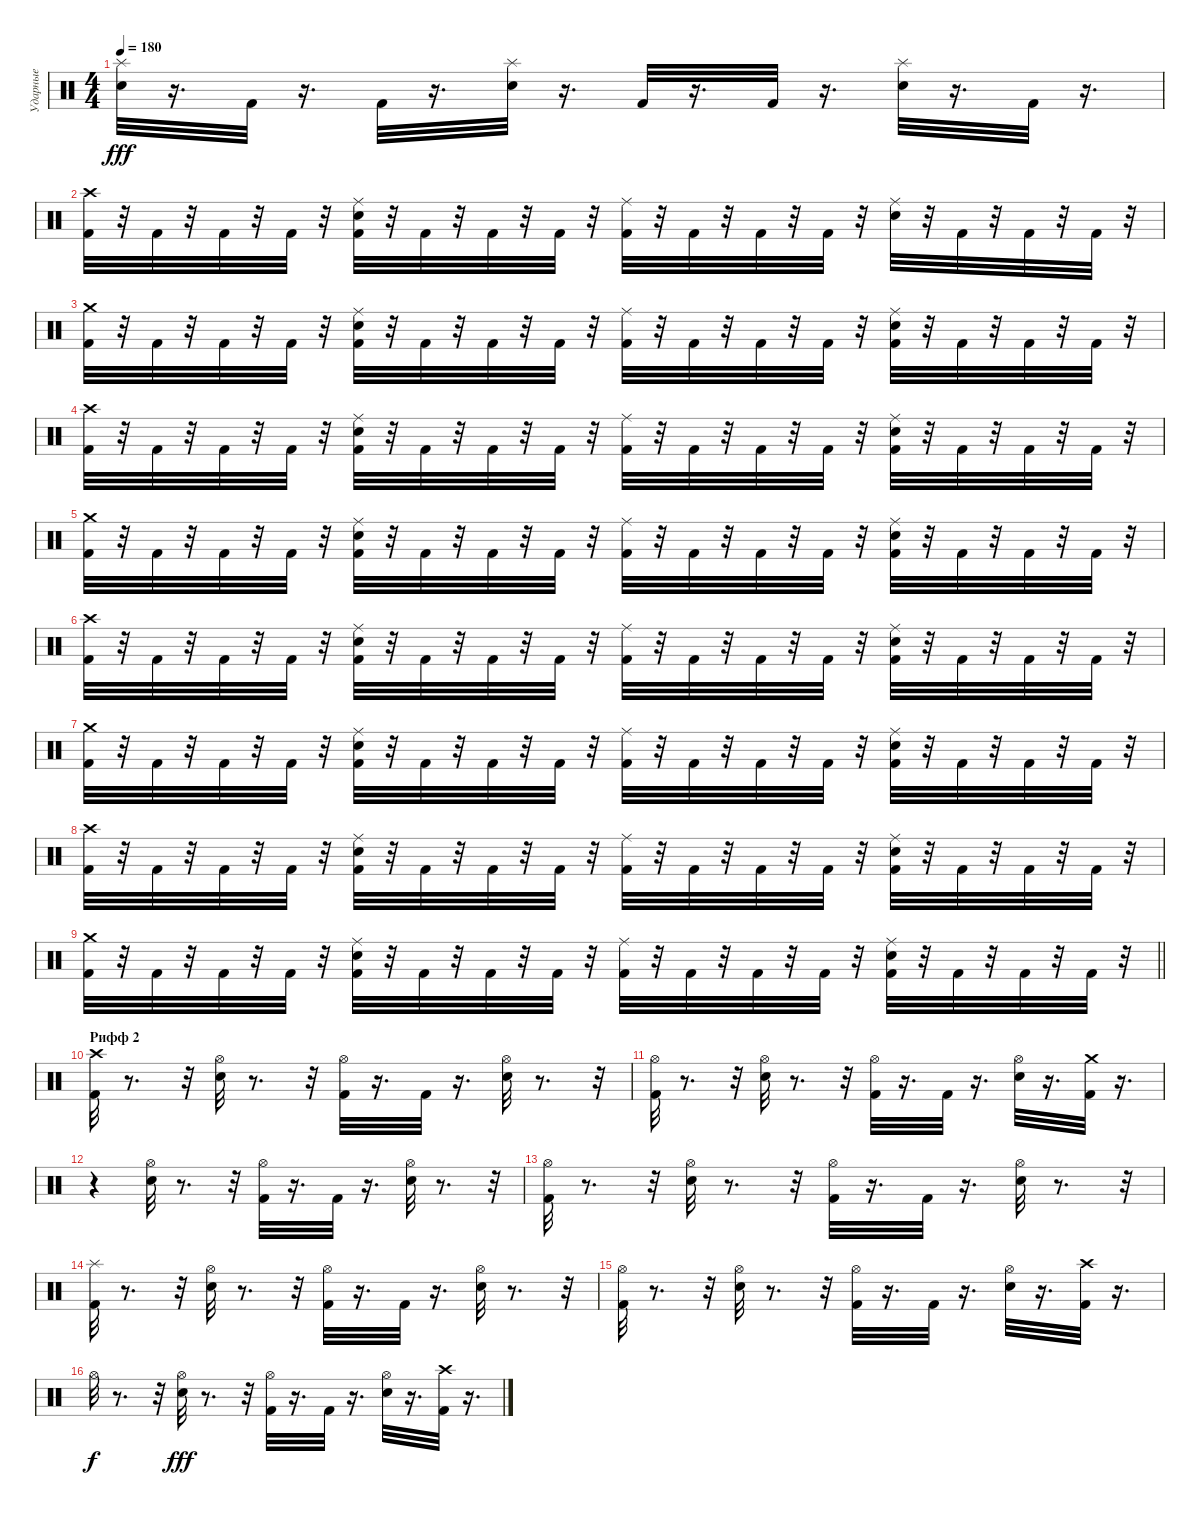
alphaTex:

\track ("Ударные" "Ударные") {instrument percussion}
\staff {score}
\articulation defaults
\ts (4 4)
\tempo 180
\clef neutral
\ks c
("Snare (hit) 2" "Splash (hit)").32{dy fff} r.16{d} "Kick (hit) 2".32 r.16{d} "Kick (hit) 2".32 r.16{d} ("Splash (hit)" "Snare (hit) 2").32 r.16{d} "Kick (hit) 2".32 r.16{d} "Kick (hit) 2".32 r.16{d} ("Splash (hit)" "Snare (hit) 2").32 r.16{d} "Kick (hit) 2".32 r.16{d} |
("Kick (hit) 2" "Crash high (hit)").32 r.32 "Kick (hit) 2".32 r.32 "Kick (hit) 2".32 r.32 "Kick (hit) 2".32 r.32 ("Kick (hit) 2" "Snare (hit) 2" "Ride (middle)").32 r.32 "Kick (hit) 2".32 r.32 "Kick (hit) 2".32 r.32 "Kick (hit) 2".32 r.32 ("Kick (hit) 2" "Ride (middle)").32 r.32 "Kick (hit) 2".32 r.32 "Kick (hit) 2".32 r.32 "Kick (hit) 2".32 r.32 ("Ride (middle)" "Snare (hit) 2").32 r.32 "Kick (hit) 2".32 r.32 "Kick (hit) 2".32 r.32 "Kick (hit) 2".32 r.32 |
("Kick (hit) 2" "Crash medium (hit)").32 r.32 "Kick (hit) 2".32 r.32 "Kick (hit) 2".32 r.32 "Kick (hit) 2".32 r.32 ("Kick (hit) 2" "Snare (hit) 2" "Ride (middle)").32 r.32 "Kick (hit) 2".32 r.32 "Kick (hit) 2".32 r.32 "Kick (hit) 2".32 r.32 ("Ride (middle)" "Kick (hit) 2").32 r.32 "Kick (hit) 2".32 r.32 "Kick (hit) 2".32 r.32 "Kick (hit) 2".32 r.32 ("Ride (middle)" "Kick (hit) 2" "Snare (hit) 2").32 r.32 "Kick (hit) 2".32 r.32 "Kick (hit) 2".32 r.32 "Kick (hit) 2".32 r.32 |
("Kick (hit) 2" "Crash high (hit)").32 r.32 "Kick (hit) 2".32 r.32 "Kick (hit) 2".32 r.32 "Kick (hit) 2".32 r.32 ("Kick (hit) 2" "Ride (middle)" "Snare (hit) 2").32 r.32 "Kick (hit) 2".32 r.32 "Kick (hit) 2".32 r.32 "Kick (hit) 2".32 r.32 ("Kick (hit) 2" "Ride (middle)").32 r.32 "Kick (hit) 2".32 r.32 "Kick (hit) 2".32 r.32 "Kick (hit) 2".32 r.32 ("Ride (middle)" "Snare (hit) 2" "Kick (hit) 2").32 r.32 "Kick (hit) 2".32 r.32 "Kick (hit) 2".32 r.32 "Kick (hit) 2".32 r.32 |
("Crash medium (hit)" "Kick (hit) 2").32 r.32 "Kick (hit) 2".32 r.32 "Kick (hit) 2".32 r.32 "Kick (hit) 2".32 r.32 ("Kick (hit) 2" "Snare (hit) 2" "Ride (middle)").32 r.32 "Kick (hit) 2".32 r.32 "Kick (hit) 2".32 r.32 "Kick (hit) 2".32 r.32 ("Ride (middle)" "Kick (hit) 2").32 r.32 "Kick (hit) 2".32 r.32 "Kick (hit) 2".32 r.32 "Kick (hit) 2".32 r.32 ("Snare (hit) 2" "Kick (hit) 2" "Ride (middle)").32 r.32 "Kick (hit) 2".32 r.32 "Kick (hit) 2".32 r.32 "Kick (hit) 2".32 r.32 |
("Kick (hit) 2" "Crash high (hit)").32 r.32 "Kick (hit) 2".32 r.32 "Kick (hit) 2".32 r.32 "Kick (hit) 2".32 r.32 ("Kick (hit) 2" "Snare (hit) 2" "Ride (middle)").32 r.32 "Kick (hit) 2".32 r.32 "Kick (hit) 2".32 r.32 "Kick (hit) 2".32 r.32 ("Ride (middle)" "Kick (hit) 2").32 r.32 "Kick (hit) 2".32 r.32 "Kick (hit) 2".32 r.32 "Kick (hit) 2".32 r.32 ("Snare (hit) 2" "Ride (middle)" "Kick (hit) 2").32 r.32 "Kick (hit) 2".32 r.32 "Kick (hit) 2".32 r.32 "Kick (hit) 2".32 r.32 |
("Crash medium (hit)" "Kick (hit) 2").32 r.32 "Kick (hit) 2".32 r.32 "Kick (hit) 2".32 r.32 "Kick (hit) 2".32 r.32 ("Ride (middle)" "Kick (hit) 2" "Snare (hit) 2").32 r.32 "Kick (hit) 2".32 r.32 "Kick (hit) 2".32 r.32 "Kick (hit) 2".32 r.32 ("Kick (hit) 2" "Ride (middle)").32 r.32 "Kick (hit) 2".32 r.32 "Kick (hit) 2".32 r.32 "Kick (hit) 2".32 r.32 ("Ride (middle)" "Snare (hit) 2" "Kick (hit) 2").32 r.32 "Kick (hit) 2".32 r.32 "Kick (hit) 2".32 r.32 "Kick (hit) 2".32 r.32 |
("Crash high (hit)" "Kick (hit) 2").32 r.32 "Kick (hit) 2".32 r.32 "Kick (hit) 2".32 r.32 "Kick (hit) 2".32 r.32 ("Ride (middle)" "Kick (hit) 2" "Snare (hit) 2").32 r.32 "Kick (hit) 2".32 r.32 "Kick (hit) 2".32 r.32 "Kick (hit) 2".32 r.32 ("Kick (hit) 2" "Ride (middle)").32 r.32 "Kick (hit) 2".32 r.32 "Kick (hit) 2".32 r.32 "Kick (hit) 2".32 r.32 ("Snare (hit) 2" "Ride (middle)" "Kick (hit) 2").32 r.32 "Kick (hit) 2".32 r.32 "Kick (hit) 2".32 r.32 "Kick (hit) 2".32 r.32 |
\barLineRight lightlight
("Kick (hit) 2" "Crash medium (hit)").32 r.32 "Kick (hit) 2".32 r.32 "Kick (hit) 2".32 r.32 "Kick (hit) 2".32 r.32 ("Kick (hit) 2" "Ride (middle)" "Snare (hit) 2").32 r.32 "Kick (hit) 2".32 r.32 "Kick (hit) 2".32 r.32 "Kick (hit) 2".32 r.32 ("Kick (hit) 2" "Ride (middle)").32 r.32 "Kick (hit) 2".32 r.32 "Kick (hit) 2".32 r.32 "Kick (hit) 2".32 r.32 ("Kick (hit) 2" "Ride (middle)" "Snare (hit) 2").32 r.32 "Kick (hit) 2".32 r.32 "Kick (hit) 2".32 r.32 "Kick (hit) 2".32 r.32 |
\section ("" "Рифф 2")
("Kick (hit) 2" "Crash high (hit)").32 r.8{d} r.32 ("Hi-Hat (open)" "Snare (hit) 2").32 r.8{d} r.32 ("Kick (hit) 2" "Hi-Hat (open)").32 r.16{d} "Kick (hit) 2".32 r.16{d} ("Snare (hit) 2" "Hi-Hat (open)").32 r.8{d} r.32 |
("Hi-Hat (open)" "Kick (hit) 2").32 r.8{d} r.32 ("Snare (hit) 2" "Hi-Hat (open)").32 r.8{d} r.32 ("Kick (hit) 2" "Hi-Hat (open)").32 r.16{d} "Kick (hit) 2".32 r.16{d} ("Hi-Hat (open)" "Snare (hit) 2").32 r.16{d} ("Kick (hit) 2" "Crash medium (hit)").32 r.16{d} |
r.4 ("Snare (hit) 2" "Hi-Hat (open)").32 r.8{d} r.32 ("Kick (hit) 2" "Hi-Hat (open)").32 r.16{d} "Kick (hit) 2".32 r.16{d} ("Hi-Hat (open)" "Snare (hit) 2").32 r.8{d} r.32 |
("Kick (hit) 2" "Hi-Hat (open)").32 r.8{d} r.32 ("Hi-Hat (open)" "Snare (hit) 2").32 r.8{d} r.32 ("Kick (hit) 2" "Hi-Hat (open)").32 r.16{d} "Kick (hit) 2".32 r.16{d} ("Hi-Hat (open)" "Snare (hit) 2").32 r.8{d} r.32 |
("Kick (hit) 2" "Splash (hit)").32 r.8{d} r.32 ("Hi-Hat (open)" "Snare (hit) 2").32 r.8{d} r.32 ("Hi-Hat (open)" "Kick (hit) 2").32 r.16{d} "Kick (hit) 2".32 r.16{d} ("Snare (hit) 2" "Hi-Hat (open)").32 r.8{d} r.32 |
("Kick (hit) 2" "Hi-Hat (open)").32 r.8{d} r.32 ("Snare (hit) 2" "Hi-Hat (open)").32 r.8{d} r.32 ("Hi-Hat (open)" "Kick (hit) 2").32 r.16{d} "Kick (hit) 2".32 r.16{d} ("Snare (hit) 2" "Hi-Hat (open)").32 r.16{d} ("Crash high (hit)" "Kick (hit) 2").32 r.16{d} |
"Hi-Hat (open)".32{dy f} r.8{d} r.32 ("Hi-Hat (open)" "Snare (hit) 2").32{dy fff} r.8{d} r.32 ("Kick (hit) 2" "Hi-Hat (open)").32 r.16{d} "Kick (hit) 2".32 r.16{d} ("Hi-Hat (open)" "Snare (hit) 2").32 r.16{d} ("Kick (hit) 2" "Crash high (hit)").32 r.16{d}
